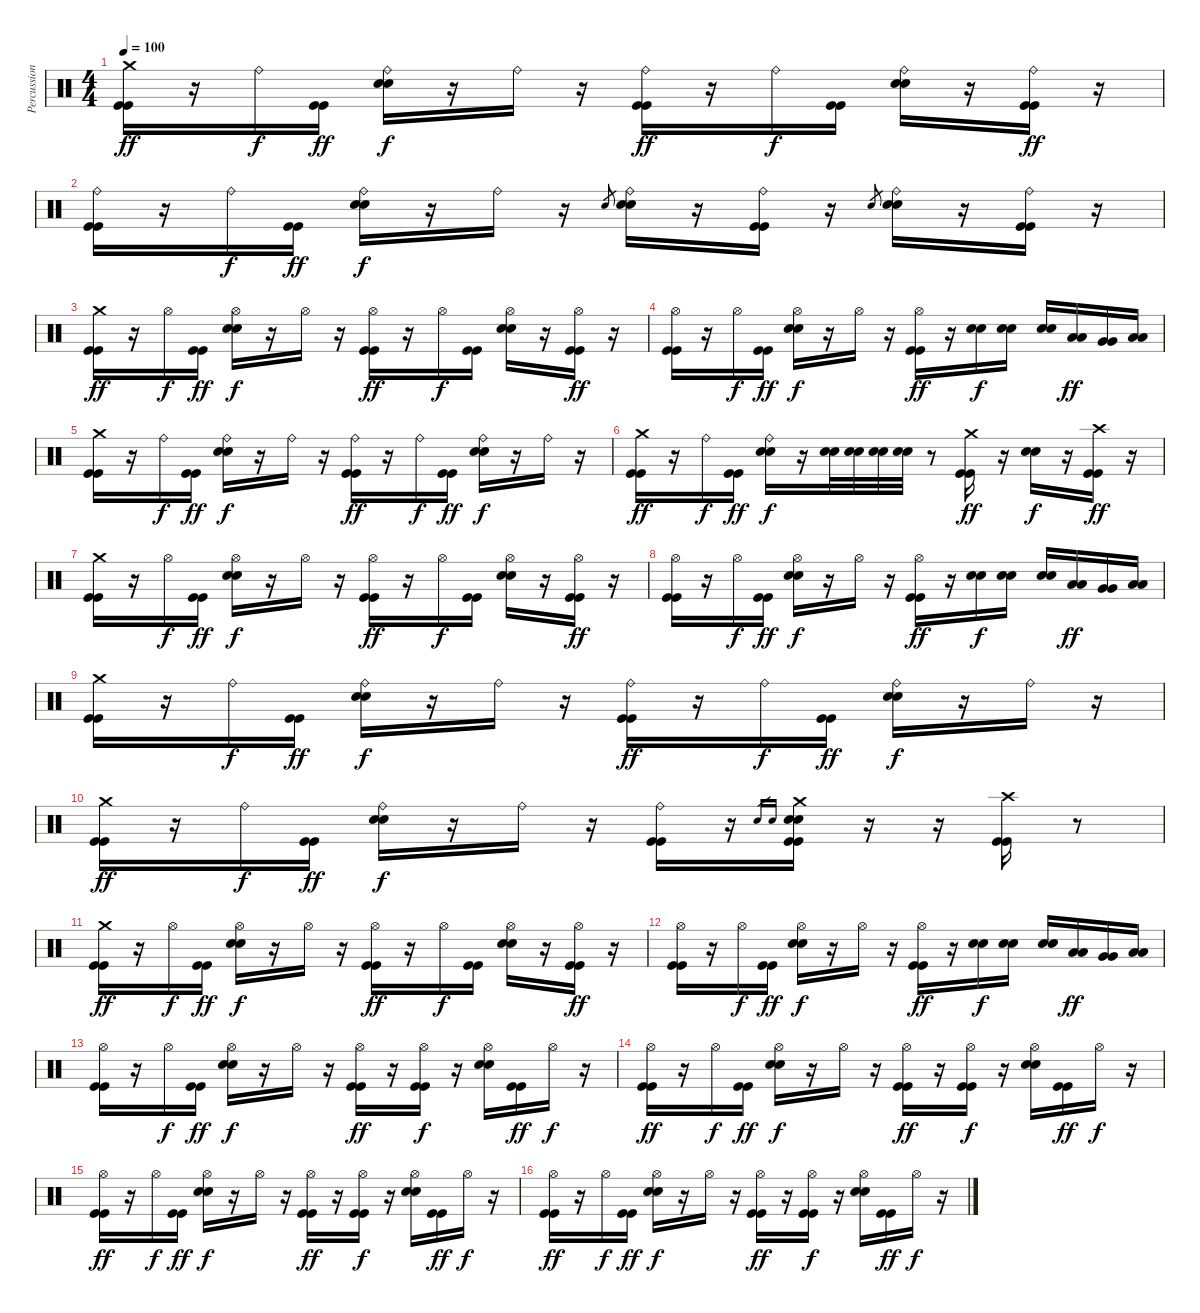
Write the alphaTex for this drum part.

\track ("Percussions" "Percussion") {instrument percussion}
\staff {score}
\articulation defaults
\ts (4 4)
\tempo 100
\clef neutral
\ks c
("Crash medium (hit)" "Kick (hit)" "Kick (hit)").16{dy ff} r.16 "Ride (bell)".16{dy f} ("Kick (hit)" "Kick (hit)").16{dy ff} ("Ride (bell)" "Electric Snare (hit)" "Electric Snare (hit)").16{dy f} r.16 "Ride (bell)".16 r.16 ("Ride (bell)" "Kick (hit)" "Kick (hit)").16{dy ff} r.16 "Ride (bell)".16{dy f} ("Kick (hit)" "Kick (hit)").16 ("Ride (bell)" "Electric Snare (hit)" "Electric Snare (hit)").16 r.16 ("Ride (bell)" "Kick (hit)" "Kick (hit)").16{dy ff} r.16 |
("Ride (bell)" "Kick (hit)" "Kick (hit)").16 r.16 "Ride (bell)".16{dy f} ("Kick (hit)" "Kick (hit)").16{dy ff} ("Ride (bell)" "Electric Snare (hit)" "Electric Snare (hit)").16{dy f} r.16 "Ride (bell)".16 r.16 "Electric Snare (hit)".8{gr} ("Ride (bell)" "Electric Snare (hit)" "Electric Snare (hit)").16 r.16 ("Ride (bell)" "Kick (hit)" "Kick (hit)").16 r.16 "Electric Snare (hit)".8{gr} ("Ride (bell)" "Electric Snare (hit)" "Electric Snare (hit)").16 r.16 ("Ride (bell)" "Kick (hit)" "Kick (hit)").16 r.16 |
("Crash medium (hit)" "Kick (hit)" "Kick (hit)").16{dy ff} r.16 "Hi-Hat (open)".16{dy f} ("Kick (hit)" "Kick (hit)").16{dy ff} ("Hi-Hat (open)" "Electric Snare (hit)" "Electric Snare (hit)").16{dy f} r.16 "Hi-Hat (open)".16 r.16 ("Hi-Hat (open)" "Kick (hit)" "Kick (hit)").16{dy ff} r.16 "Hi-Hat (open)".16{dy f} ("Kick (hit)" "Kick (hit)").16 ("Hi-Hat (open)" "Electric Snare (hit)" "Electric Snare (hit)").16 r.16 ("Hi-Hat (open)" "Kick (hit)" "Kick (hit)").16{dy ff} r.16 |
("Hi-Hat (open)" "Kick (hit)" "Kick (hit)").16 r.16 "Hi-Hat (open)".16{dy f} ("Kick (hit)" "Kick (hit)").16{dy ff} ("Hi-Hat (open)" "Electric Snare (hit)" "Electric Snare (hit)").16{dy f} r.16 "Hi-Hat (open)".16 r.16 ("Hi-Hat (open)" "Kick (hit)" "Kick (hit)").16{dy ff} r.16 ("Electric Snare (hit)" "Electric Snare (hit)").16{dy f} ("Electric Snare (hit)" "Electric Snare (hit)").16 ("Electric Snare (hit)" "Electric Snare (hit)").16 ("Low Tom (hit)" "Low Tom (hit)").16{dy ff} ("Very Low Tom (hit)" "Very Low Tom (hit)").16 ("Low Floor Tom (hit)" "Low Floor Tom (hit)").16 |
("Crash medium (hit)" "Kick (hit)" "Kick (hit)").16 r.16 "Ride (bell)".16{dy f} ("Kick (hit)" "Kick (hit)").16{dy ff} ("Ride (bell)" "Electric Snare (hit)" "Electric Snare (hit)").16{dy f} r.16 "Ride (bell)".16 r.16 ("Ride (bell)" "Kick (hit)" "Kick (hit)").16{dy ff} r.16 "Ride (bell)".16{dy f} ("Kick (hit)" "Kick (hit)").16{dy ff} ("Ride (bell)" "Electric Snare (hit)" "Electric Snare (hit)").16{dy f} r.16 "Ride (bell)".16 r.16 |
("Crash medium (hit)" "Kick (hit)" "Kick (hit)").16{dy ff} r.16 "Ride (bell)".16{dy f} ("Kick (hit)" "Kick (hit)").16{dy ff} ("Ride (bell)" "Electric Snare (hit)" "Electric Snare (hit)").16{dy f} r.16 ("Electric Snare (hit)" "Electric Snare (hit)").32 ("Electric Snare (hit)" "Electric Snare (hit)").32 ("Electric Snare (hit)" "Electric Snare (hit)").32 ("Electric Snare (hit)" "Electric Snare (hit)").32 r.8 ("Crash medium (hit)" "Kick (hit)" "Kick (hit)").16{dy ff} r.16 ("Electric Snare (hit)" "Electric Snare (hit)").16{dy f} r.16 ("Crash high (hit)" "Kick (hit)" "Kick (hit)").16{dy ff} r.16 |
("Crash medium (hit)" "Kick (hit)" "Kick (hit)").16 r.16 "Hi-Hat (open)".16{dy f} ("Kick (hit)" "Kick (hit)").16{dy ff} ("Hi-Hat (open)" "Electric Snare (hit)" "Electric Snare (hit)").16{dy f} r.16 "Hi-Hat (open)".16 r.16 ("Hi-Hat (open)" "Kick (hit)" "Kick (hit)").16{dy ff} r.16 "Hi-Hat (open)".16{dy f} ("Kick (hit)" "Kick (hit)").16 ("Hi-Hat (open)" "Electric Snare (hit)" "Electric Snare (hit)").16 r.16 ("Hi-Hat (open)" "Kick (hit)" "Kick (hit)").16{dy ff} r.16 |
("Hi-Hat (open)" "Kick (hit)" "Kick (hit)").16 r.16 "Hi-Hat (open)".16{dy f} ("Kick (hit)" "Kick (hit)").16{dy ff} ("Hi-Hat (open)" "Electric Snare (hit)" "Electric Snare (hit)").16{dy f} r.16 "Hi-Hat (open)".16 r.16 ("Hi-Hat (open)" "Kick (hit)" "Kick (hit)").16{dy ff} r.16 ("Electric Snare (hit)" "Electric Snare (hit)").16{dy f} ("Electric Snare (hit)" "Electric Snare (hit)").16 ("Electric Snare (hit)" "Electric Snare (hit)").16 ("Low Tom (hit)" "Low Tom (hit)").16{dy ff} ("Very Low Tom (hit)" "Very Low Tom (hit)").16 ("Low Floor Tom (hit)" "Low Floor Tom (hit)").16 |
("Crash medium (hit)" "Kick (hit)" "Kick (hit)").16 r.16 "Ride (bell)".16{dy f} ("Kick (hit)" "Kick (hit)").16{dy ff} ("Ride (bell)" "Electric Snare (hit)" "Electric Snare (hit)").16{dy f} r.16 "Ride (bell)".16 r.16 ("Ride (bell)" "Kick (hit)" "Kick (hit)").16{dy ff} r.16 "Ride (bell)".16{dy f} ("Kick (hit)" "Kick (hit)").16{dy ff} ("Ride (bell)" "Electric Snare (hit)" "Electric Snare (hit)").16{dy f} r.16 "Ride (bell)".16 r.16 |
("Crash medium (hit)" "Kick (hit)" "Kick (hit)").16{dy ff} r.16 "Ride (bell)".16{dy f} ("Kick (hit)" "Kick (hit)").16{dy ff} ("Ride (bell)" "Electric Snare (hit)" "Electric Snare (hit)").16{dy f} r.16 "Ride (bell)".16 r.16 ("Ride (bell)" "Kick (hit)" "Kick (hit)").16 r.16 "Electric Snare (hit)".16{gr} "Electric Snare (hit)".16{gr} ("Crash medium (hit)" "Electric Snare (hit)" "Electric Snare (hit)" "Kick (hit)" "Kick (hit)").16 r.16 r.16 ("Crash high (hit)" "Kick (hit)" "Kick (hit)").16 r.8 |
("Crash medium (hit)" "Kick (hit)" "Kick (hit)").16{dy ff} r.16 "Hi-Hat (open)".16{dy f} ("Kick (hit)" "Kick (hit)").16{dy ff} ("Hi-Hat (open)" "Electric Snare (hit)" "Electric Snare (hit)").16{dy f} r.16 "Hi-Hat (open)".16 r.16 ("Hi-Hat (open)" "Kick (hit)" "Kick (hit)").16{dy ff} r.16 "Hi-Hat (open)".16{dy f} ("Kick (hit)" "Kick (hit)").16 ("Hi-Hat (open)" "Electric Snare (hit)" "Electric Snare (hit)").16 r.16 ("Hi-Hat (open)" "Kick (hit)" "Kick (hit)").16{dy ff} r.16 |
("Hi-Hat (open)" "Kick (hit)" "Kick (hit)").16 r.16 "Hi-Hat (open)".16{dy f} ("Kick (hit)" "Kick (hit)").16{dy ff} ("Hi-Hat (open)" "Electric Snare (hit)" "Electric Snare (hit)").16{dy f} r.16 "Hi-Hat (open)".16 r.16 ("Hi-Hat (open)" "Kick (hit)" "Kick (hit)").16{dy ff} r.16 ("Electric Snare (hit)" "Electric Snare (hit)").16{dy f} ("Electric Snare (hit)" "Electric Snare (hit)").16 ("Electric Snare (hit)" "Electric Snare (hit)").16 ("Low Tom (hit)" "Low Tom (hit)").16{dy ff} ("Very Low Tom (hit)" "Very Low Tom (hit)").16 ("Low Floor Tom (hit)" "Low Floor Tom (hit)").16 |
("Hi-Hat (open)" "Kick (hit)" "Kick (hit)").16 r.16 "Hi-Hat (open)".16{dy f} ("Kick (hit)" "Kick (hit)").16{dy ff} ("Hi-Hat (open)" "Electric Snare (hit)" "Electric Snare (hit)").16{dy f} r.16 "Hi-Hat (open)".16 r.16 ("Hi-Hat (open)" "Kick (hit)" "Kick (hit)").16{dy ff} r.16 ("Hi-Hat (open)" "Kick (hit)" "Kick (hit)").16{dy f} r.16 ("Hi-Hat (open)" "Electric Snare (hit)" "Electric Snare (hit)").16 ("Kick (hit)" "Kick (hit)").16{dy ff} "Hi-Hat (open)".16{dy f} r.16 |
("Hi-Hat (open)" "Kick (hit)" "Kick (hit)").16{dy ff} r.16 "Hi-Hat (open)".16{dy f} ("Kick (hit)" "Kick (hit)").16{dy ff} ("Hi-Hat (open)" "Electric Snare (hit)" "Electric Snare (hit)").16{dy f} r.16 "Hi-Hat (open)".16 r.16 ("Hi-Hat (open)" "Kick (hit)" "Kick (hit)").16{dy ff} r.16 ("Hi-Hat (open)" "Kick (hit)" "Kick (hit)").16{dy f} r.16 ("Hi-Hat (open)" "Electric Snare (hit)" "Electric Snare (hit)").16 ("Kick (hit)" "Kick (hit)").16{dy ff} "Hi-Hat (open)".16{dy f} r.16 |
("Hi-Hat (open)" "Kick (hit)" "Kick (hit)").16{dy ff} r.16 "Hi-Hat (open)".16{dy f} ("Kick (hit)" "Kick (hit)").16{dy ff} ("Hi-Hat (open)" "Electric Snare (hit)" "Electric Snare (hit)").16{dy f} r.16 "Hi-Hat (open)".16 r.16 ("Hi-Hat (open)" "Kick (hit)" "Kick (hit)").16{dy ff} r.16 ("Hi-Hat (open)" "Kick (hit)" "Kick (hit)").16{dy f} r.16 ("Hi-Hat (open)" "Electric Snare (hit)" "Electric Snare (hit)").16 ("Kick (hit)" "Kick (hit)").16{dy ff} "Hi-Hat (open)".16{dy f} r.16 |
("Hi-Hat (open)" "Kick (hit)" "Kick (hit)").16{dy ff} r.16 "Hi-Hat (open)".16{dy f} ("Kick (hit)" "Kick (hit)").16{dy ff} ("Hi-Hat (open)" "Electric Snare (hit)" "Electric Snare (hit)").16{dy f} r.16 "Hi-Hat (open)".16 r.16 ("Hi-Hat (open)" "Kick (hit)" "Kick (hit)").16{dy ff} r.16 ("Hi-Hat (open)" "Kick (hit)" "Kick (hit)").16{dy f} r.16 ("Hi-Hat (open)" "Electric Snare (hit)" "Electric Snare (hit)").16 ("Kick (hit)" "Kick (hit)").16{dy ff} "Hi-Hat (open)".16{dy f} r.16
